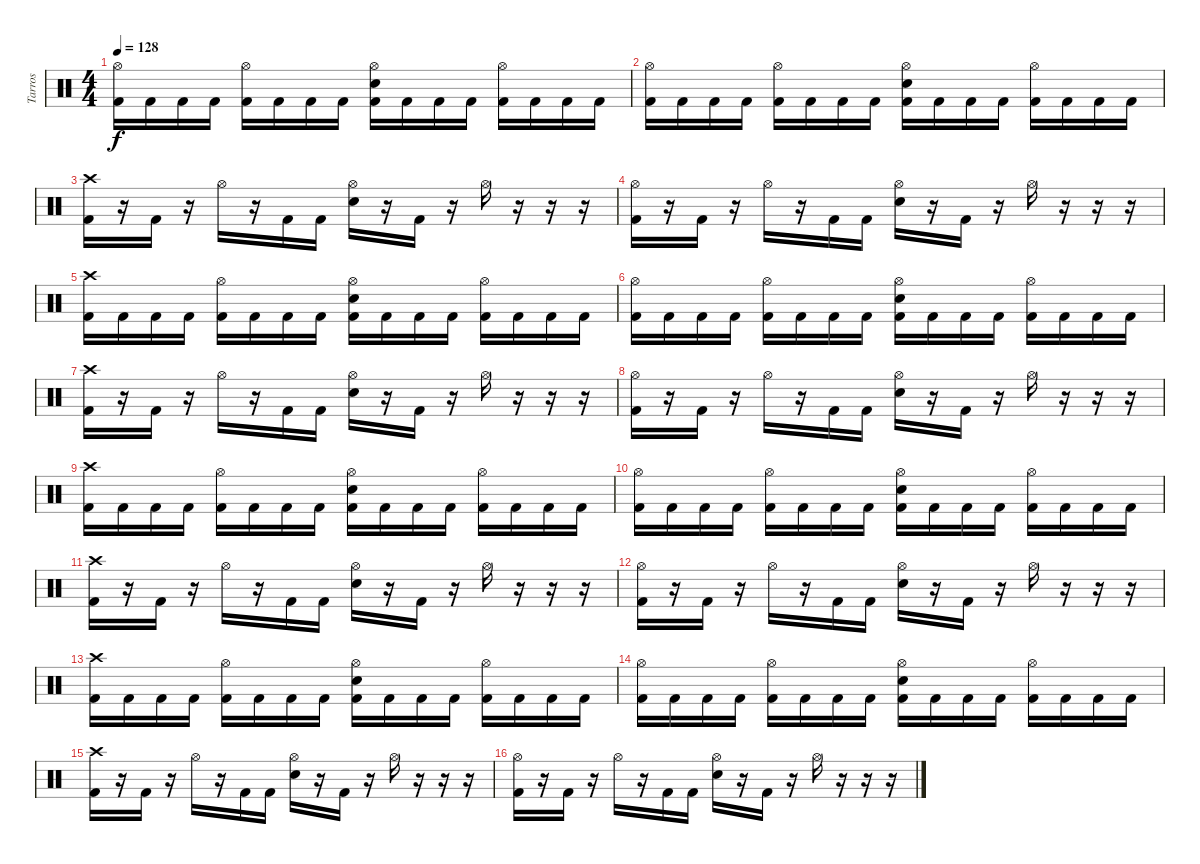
\track ("Tarros" "Tarros") {instrument percussion}
\staff {score}
\articulation defaults
\ts (4 4)
\tempo 128
\clef neutral
\ks c
("Hi-Hat (open)" "Kick (hit) 2").16{dy f} "Kick (hit) 2".16 "Kick (hit) 2".16 "Kick (hit) 2".16 ("Hi-Hat (open)" "Kick (hit) 2").16 "Kick (hit) 2".16 "Kick (hit) 2".16 "Kick (hit) 2".16 ("Hi-Hat (open)" "Electric Snare (hit)" "Kick (hit) 2").16 "Kick (hit) 2".16 "Kick (hit) 2".16 "Kick (hit) 2".16 ("Hi-Hat (open)" "Kick (hit) 2").16 "Kick (hit) 2".16 "Kick (hit) 2".16 "Kick (hit) 2".16 |
("Hi-Hat (open)" "Kick (hit) 2").16 "Kick (hit) 2".16 "Kick (hit) 2".16 "Kick (hit) 2".16 ("Hi-Hat (open)" "Kick (hit) 2").16 "Kick (hit) 2".16 "Kick (hit) 2".16 "Kick (hit) 2".16 ("Hi-Hat (open)" "Electric Snare (hit)" "Kick (hit) 2").16 "Kick (hit) 2".16 "Kick (hit) 2".16 "Kick (hit) 2".16 ("Hi-Hat (open)" "Kick (hit) 2").16 "Kick (hit) 2".16 "Kick (hit) 2".16 "Kick (hit) 2".16 |
("Crash high (hit)" "Kick (hit) 2").16 r.16 "Kick (hit) 2".16 r.16 "Hi-Hat (open)".16 r.16 "Kick (hit) 2".16 "Kick (hit) 2".16 ("Hi-Hat (open)" "Electric Snare (hit)").16 r.16 "Kick (hit) 2".16 r.16 "Hi-Hat (open)".16 r.16 r.16 r.16 |
("Hi-Hat (open)" "Kick (hit) 2").16 r.16 "Kick (hit) 2".16 r.16 "Hi-Hat (open)".16 r.16 "Kick (hit) 2".16 "Kick (hit) 2".16 ("Hi-Hat (open)" "Electric Snare (hit)").16 r.16 "Kick (hit) 2".16 r.16 "Hi-Hat (open)".16 r.16 r.16 r.16 |
("Crash high (hit)" "Kick (hit) 2").16 "Kick (hit) 2".16 "Kick (hit) 2".16 "Kick (hit) 2".16 ("Hi-Hat (open)" "Kick (hit) 2").16 "Kick (hit) 2".16 "Kick (hit) 2".16 "Kick (hit) 2".16 ("Hi-Hat (open)" "Electric Snare (hit)" "Kick (hit) 2").16 "Kick (hit) 2".16 "Kick (hit) 2".16 "Kick (hit) 2".16 ("Hi-Hat (open)" "Kick (hit) 2").16 "Kick (hit) 2".16 "Kick (hit) 2".16 "Kick (hit) 2".16 |
("Hi-Hat (open)" "Kick (hit) 2").16 "Kick (hit) 2".16 "Kick (hit) 2".16 "Kick (hit) 2".16 ("Hi-Hat (open)" "Kick (hit) 2").16 "Kick (hit) 2".16 "Kick (hit) 2".16 "Kick (hit) 2".16 ("Hi-Hat (open)" "Electric Snare (hit)" "Kick (hit) 2").16 "Kick (hit) 2".16 "Kick (hit) 2".16 "Kick (hit) 2".16 ("Hi-Hat (open)" "Kick (hit) 2").16 "Kick (hit) 2".16 "Kick (hit) 2".16 "Kick (hit) 2".16 |
("Crash high (hit)" "Kick (hit) 2").16 r.16 "Kick (hit) 2".16 r.16 "Hi-Hat (open)".16 r.16 "Kick (hit) 2".16 "Kick (hit) 2".16 ("Hi-Hat (open)" "Electric Snare (hit)").16 r.16 "Kick (hit) 2".16 r.16 "Hi-Hat (open)".16 r.16 r.16 r.16 |
("Hi-Hat (open)" "Kick (hit) 2").16 r.16 "Kick (hit) 2".16 r.16 "Hi-Hat (open)".16 r.16 "Kick (hit) 2".16 "Kick (hit) 2".16 ("Hi-Hat (open)" "Electric Snare (hit)").16 r.16 "Kick (hit) 2".16 r.16 "Hi-Hat (open)".16 r.16 r.16 r.16 |
("Crash high (hit)" "Kick (hit) 2").16 "Kick (hit) 2".16 "Kick (hit) 2".16 "Kick (hit) 2".16 ("Hi-Hat (open)" "Kick (hit) 2").16 "Kick (hit) 2".16 "Kick (hit) 2".16 "Kick (hit) 2".16 ("Hi-Hat (open)" "Electric Snare (hit)" "Kick (hit) 2").16 "Kick (hit) 2".16 "Kick (hit) 2".16 "Kick (hit) 2".16 ("Hi-Hat (open)" "Kick (hit) 2").16 "Kick (hit) 2".16 "Kick (hit) 2".16 "Kick (hit) 2".16 |
("Hi-Hat (open)" "Kick (hit) 2").16 "Kick (hit) 2".16 "Kick (hit) 2".16 "Kick (hit) 2".16 ("Hi-Hat (open)" "Kick (hit) 2").16 "Kick (hit) 2".16 "Kick (hit) 2".16 "Kick (hit) 2".16 ("Hi-Hat (open)" "Electric Snare (hit)" "Kick (hit) 2").16 "Kick (hit) 2".16 "Kick (hit) 2".16 "Kick (hit) 2".16 ("Hi-Hat (open)" "Kick (hit) 2").16 "Kick (hit) 2".16 "Kick (hit) 2".16 "Kick (hit) 2".16 |
("Crash high (hit)" "Kick (hit) 2").16 r.16 "Kick (hit) 2".16 r.16 "Hi-Hat (open)".16 r.16 "Kick (hit) 2".16 "Kick (hit) 2".16 ("Hi-Hat (open)" "Electric Snare (hit)").16 r.16 "Kick (hit) 2".16 r.16 "Hi-Hat (open)".16 r.16 r.16 r.16 |
("Hi-Hat (open)" "Kick (hit) 2").16 r.16 "Kick (hit) 2".16 r.16 "Hi-Hat (open)".16 r.16 "Kick (hit) 2".16 "Kick (hit) 2".16 ("Hi-Hat (open)" "Electric Snare (hit)").16 r.16 "Kick (hit) 2".16 r.16 "Hi-Hat (open)".16 r.16 r.16 r.16 |
("Crash high (hit)" "Kick (hit) 2").16 "Kick (hit) 2".16 "Kick (hit) 2".16 "Kick (hit) 2".16 ("Hi-Hat (open)" "Kick (hit) 2").16 "Kick (hit) 2".16 "Kick (hit) 2".16 "Kick (hit) 2".16 ("Hi-Hat (open)" "Electric Snare (hit)" "Kick (hit) 2").16 "Kick (hit) 2".16 "Kick (hit) 2".16 "Kick (hit) 2".16 ("Hi-Hat (open)" "Kick (hit) 2").16 "Kick (hit) 2".16 "Kick (hit) 2".16 "Kick (hit) 2".16 |
("Hi-Hat (open)" "Kick (hit) 2").16 "Kick (hit) 2".16 "Kick (hit) 2".16 "Kick (hit) 2".16 ("Hi-Hat (open)" "Kick (hit) 2").16 "Kick (hit) 2".16 "Kick (hit) 2".16 "Kick (hit) 2".16 ("Hi-Hat (open)" "Electric Snare (hit)" "Kick (hit) 2").16 "Kick (hit) 2".16 "Kick (hit) 2".16 "Kick (hit) 2".16 ("Hi-Hat (open)" "Kick (hit) 2").16 "Kick (hit) 2".16 "Kick (hit) 2".16 "Kick (hit) 2".16 |
("Crash high (hit)" "Kick (hit) 2").16 r.16 "Kick (hit) 2".16 r.16 "Hi-Hat (open)".16 r.16 "Kick (hit) 2".16 "Kick (hit) 2".16 ("Hi-Hat (open)" "Electric Snare (hit)").16 r.16 "Kick (hit) 2".16 r.16 "Hi-Hat (open)".16 r.16 r.16 r.16 |
("Hi-Hat (open)" "Kick (hit) 2").16 r.16 "Kick (hit) 2".16 r.16 "Hi-Hat (open)".16 r.16 "Kick (hit) 2".16 "Kick (hit) 2".16 ("Hi-Hat (open)" "Electric Snare (hit)").16 r.16 "Kick (hit) 2".16 r.16 "Hi-Hat (open)".16 r.16 r.16 r.16
